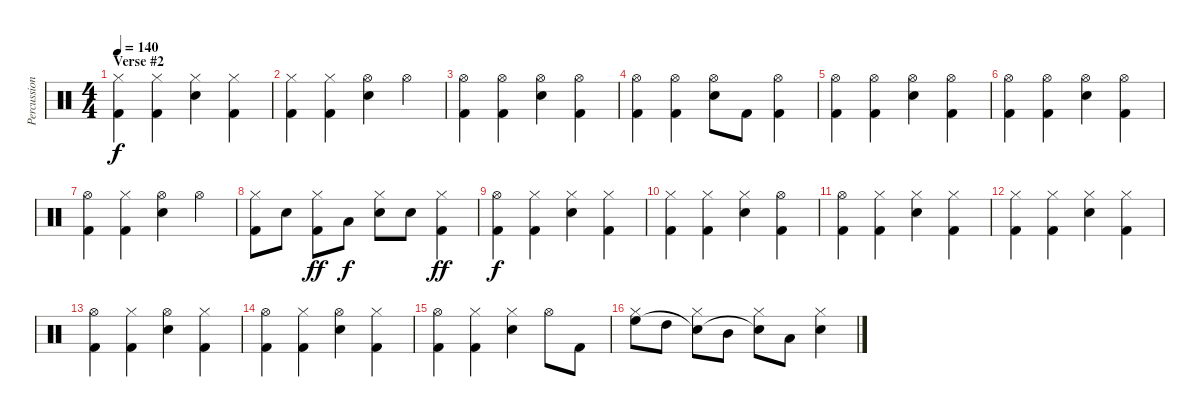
\track ("Percussion" "Percussion") {instrument percussion}
\staff {score}
\articulation defaults
\ts (4 4)
\section ("" "Verse #2")
\tempo 140
\clef neutral
\ks c
("Hi-Hat (closed)" "Kick (hit) 2").4{dy f} ("Hi-Hat (closed)" "Kick (hit) 2").4 ("Hi-Hat (closed)" "Electric Snare (hit)").4 ("Hi-Hat (closed)" "Kick (hit) 2").4 |
("Hi-Hat (closed)" "Kick (hit) 2").4 ("Hi-Hat (closed)" "Kick (hit) 2").4 ("Hi-Hat (open)" "Electric Snare (hit)").4 "Hi-Hat (open)".4 |
("Hi-Hat (open)" "Kick (hit) 2").4 ("Hi-Hat (open)" "Kick (hit) 2").4 ("Hi-Hat (open)" "Electric Snare (hit)").4 ("Hi-Hat (open)" "Kick (hit) 2").4 |
("Hi-Hat (open)" "Kick (hit) 2").4 ("Hi-Hat (open)" "Kick (hit) 2").4 ("Hi-Hat (open)" "Electric Snare (hit)").8 "Kick (hit) 2".8 ("Hi-Hat (open)" "Kick (hit) 2").4 |
("Hi-Hat (open)" "Kick (hit) 2").4 ("Hi-Hat (open)" "Kick (hit) 2").4 ("Hi-Hat (open)" "Electric Snare (hit)").4 ("Hi-Hat (open)" "Kick (hit) 2").4 |
("Hi-Hat (open)" "Kick (hit) 2").4 ("Hi-Hat (open)" "Kick (hit) 2").4 ("Hi-Hat (open)" "Electric Snare (hit)").4 ("Hi-Hat (open)" "Kick (hit) 2").4 |
("Hi-Hat (open)" "Kick (hit) 2").4 ("Hi-Hat (closed)" "Kick (hit) 2").4 ("Hi-Hat (open)" "Electric Snare (hit)").4 "Hi-Hat (open)".4 |
("Hi-Hat (closed)" "Kick (hit) 2").8 "Electric Snare (hit)".8 ("Hi-Hat (closed)" "Kick (hit) 2").8{dy ff} "Low Tom (hit)".8{dy f} ("Hi-Hat (closed)" "Electric Snare (hit)").8 "Electric Snare (hit)".8 ("Hi-Hat (closed)" "Kick (hit) 2").4{dy ff} |
("Hi-Hat (open)" "Kick (hit) 2").4{dy f} ("Hi-Hat (closed)" "Kick (hit) 2").4 ("Hi-Hat (closed)" "Electric Snare (hit)").4 ("Hi-Hat (closed)" "Kick (hit) 2").4 |
("Hi-Hat (closed)" "Kick (hit) 2").4 ("Hi-Hat (closed)" "Kick (hit) 2").4 ("Hi-Hat (closed)" "Electric Snare (hit)").4 ("Hi-Hat (open)" "Kick (hit) 2").4 |
("Hi-Hat (open)" "Kick (hit) 2").4 ("Hi-Hat (closed)" "Kick (hit) 2").4 ("Hi-Hat (closed)" "Electric Snare (hit)").4 ("Hi-Hat (closed)" "Kick (hit) 2").4 |
("Hi-Hat (closed)" "Kick (hit) 2").4 ("Hi-Hat (closed)" "Kick (hit) 2").4 ("Hi-Hat (closed)" "Electric Snare (hit)").4 ("Hi-Hat (closed)" "Kick (hit) 2").4 |
("Hi-Hat (open)" "Kick (hit) 2").4 ("Hi-Hat (closed)" "Kick (hit) 2").4 ("Hi-Hat (open)" "Electric Snare (hit)").4 ("Hi-Hat (closed)" "Kick (hit) 2").4 |
("Hi-Hat (open)" "Kick (hit) 2").4 ("Hi-Hat (closed)" "Kick (hit) 2").4 ("Hi-Hat (open)" "Electric Snare (hit)").4 ("Hi-Hat (closed)" "Kick (hit) 2").4 |
("Hi-Hat (open)" "Kick (hit) 2").4 ("Hi-Hat (closed)" "Kick (hit) 2").4 ("Hi-Hat (closed)" "Electric Snare (hit)").4 "Hi-Hat (open)".8 "Kick (hit) 2".8 |
("Hi-Hat (closed)" "High Floor Tom (hit)").8 "High Tom (hit)".8 ("Hi-Hat (closed)" "Snare (hit)"{t}).8 "Mid Tom (hit)".8 ("Hi-Hat (closed)" "Snare (hit)"{t}).8 "Low Tom (hit)".8 ("Hi-Hat (closed)" "Electric Snare (hit)").4
